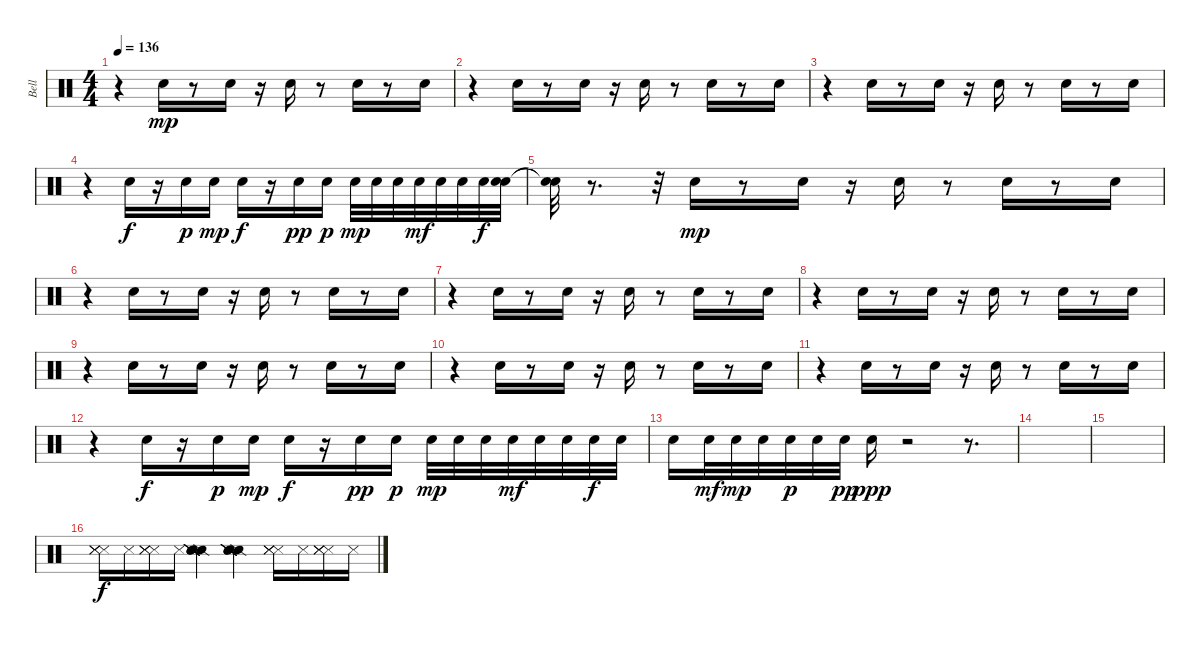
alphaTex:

\track ("Bell" "Bell") {instrument percussion}
\staff {score}
\articulation defaults
\ts (4 4)
\tempo 136
\clef neutral
\ks c
r.4{dy mp} "Metronome (bell)".16 r.8 "Metronome (bell)".16 r.16 "Metronome (bell)".16 r.8 "Metronome (bell)".16 r.8 "Metronome (bell)".16 |
r.4 "Metronome (bell)".16 r.8 "Metronome (bell)".16 r.16 "Metronome (bell)".16 r.8 "Metronome (bell)".16 r.8 "Metronome (bell)".16 |
r.4 "Metronome (bell)".16 r.8 "Metronome (bell)".16 r.16 "Metronome (bell)".16 r.8 "Metronome (bell)".16 r.8 "Metronome (bell)".16 |
r.4 "Metronome (bell)".16{dy f} r.16 "Metronome (bell)".16{dy p} "Metronome (bell)".16{dy mp} "Metronome (bell)".16{dy f} r.16 "Metronome (bell)".16{dy pp} "Metronome (bell)".16{dy p} "Metronome (bell)".32{dy mp} "Metronome (bell)".32 "Metronome (bell)".32 "Metronome (bell)".32{dy mf} "Metronome (bell)".32 "Metronome (bell)".32 "Metronome (bell)".32{dy f} ("Metronome (bell)" "Metronome (bell)").32 |
("Snare (hit)"{t} "Snare (hit)"{t}).32 r.8{d} r.32 "Metronome (bell)".16{dy mp} r.8 "Metronome (bell)".16 r.16 "Metronome (bell)".16 r.8 "Metronome (bell)".16 r.8 "Metronome (bell)".16 |
r.4 "Metronome (bell)".16 r.8 "Metronome (bell)".16 r.16 "Metronome (bell)".16 r.8 "Metronome (bell)".16 r.8 "Metronome (bell)".16 |
r.4 "Metronome (bell)".16 r.8 "Metronome (bell)".16 r.16 "Metronome (bell)".16 r.8 "Metronome (bell)".16 r.8 "Metronome (bell)".16 |
r.4 "Metronome (bell)".16 r.8 "Metronome (bell)".16 r.16 "Metronome (bell)".16 r.8 "Metronome (bell)".16 r.8 "Metronome (bell)".16 |
r.4 "Metronome (bell)".16 r.8 "Metronome (bell)".16 r.16 "Metronome (bell)".16 r.8 "Metronome (bell)".16 r.8 "Metronome (bell)".16 |
r.4 "Metronome (bell)".16 r.8 "Metronome (bell)".16 r.16 "Metronome (bell)".16 r.8 "Metronome (bell)".16 r.8 "Metronome (bell)".16 |
r.4 "Metronome (bell)".16 r.8 "Metronome (bell)".16 r.16 "Metronome (bell)".16 r.8 "Metronome (bell)".16 r.8 "Metronome (bell)".16 |
r.4 "Metronome (bell)".16{dy f} r.16 "Metronome (bell)".16{dy p} "Metronome (bell)".16{dy mp} "Metronome (bell)".16{dy f} r.16 "Metronome (bell)".16{dy pp} "Metronome (bell)".16{dy p} "Metronome (bell)".32{dy mp} "Metronome (bell)".32 "Metronome (bell)".32 "Metronome (bell)".32{dy mf} "Metronome (bell)".32 "Metronome (bell)".32 "Metronome (bell)".32{dy f} "Metronome (bell)".32 |
"Metronome (bell)".16 "Metronome (bell)".32{dy mf} "Metronome (bell)".32{dy mp} "Metronome (bell)".32 "Metronome (bell)".32{dy p} "Metronome (bell)".32 "Metronome (bell)".32{dy pp} "Metronome (bell)".16{dy ppp} r.2 r.8{d} |
|
|
("Metronome (hit)" "Metronome (hit)" "Metronome (hit)" "Metronome (hit)").16{dy f} "Metronome (hit)".16 ("Metronome (hit)" "Metronome (hit)" "Metronome (hit)" "Metronome (hit)").16 "Metronome (hit)".16 ("Snare (side stick) 2" "Snare (side stick) 2" "Snare (side stick) 2" "Snare (side stick) 2" "Snare (side stick) 2").4 ("Snare (side stick) 2" "Snare (side stick) 2" "Snare (side stick) 2" "Snare (side stick) 2" "Snare (side stick) 2").4 ("Metronome (hit)" "Metronome (hit)" "Metronome (hit)" "Metronome (hit)").16 "Metronome (hit)".16 ("Metronome (hit)" "Metronome (hit)" "Metronome (hit)" "Metronome (hit)").16 "Metronome (hit)".16
